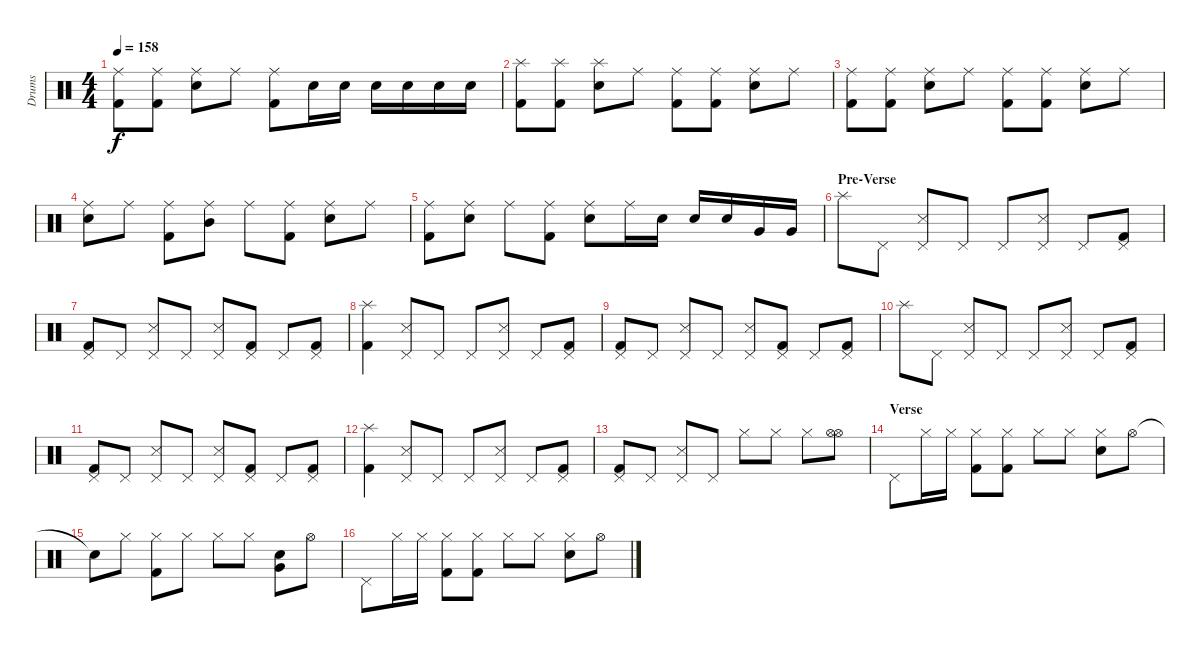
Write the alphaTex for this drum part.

\track ("Drums" "Drums") {instrument percussion}
\staff {score}
\articulation defaults
\ts (4 4)
\tempo 158
\clef neutral
\ks c
("Ride (middle)" "Kick (hit) 2").8{dy f} ("Ride (middle)" "Kick (hit) 2").8 ("Ride (middle)" "Electric Snare (hit)").8 "Ride (middle)".8 ("Ride (middle)" "Kick (hit) 2").8 "Electric Snare (hit)".16 "Electric Snare (hit)".16 "Electric Snare (hit)".16 "Electric Snare (hit)".16 "Electric Snare (hit)".16 "Electric Snare (hit)".16 |
("Splash (hit)" "Kick (hit) 2").8 ("Splash (hit)" "Kick (hit) 2").8 ("Splash (hit)" "Electric Snare (hit)").8 "Ride (middle)".8 ("Ride (middle)" "Kick (hit) 2").8 ("Ride (middle)" "Kick (hit) 2").8 ("Ride (middle)" "Electric Snare (hit)").8 "Ride (middle)".8 |
("Ride (middle)" "Kick (hit) 2").8 ("Ride (middle)" "Kick (hit) 2").8 ("Ride (middle)" "Electric Snare (hit)").8 "Ride (middle)".8 ("Ride (middle)" "Kick (hit) 2").8 ("Ride (middle)" "Kick (hit) 2").8 ("Ride (middle)" "Electric Snare (hit)").8 "Ride (middle)".8 |
("Ride (middle)" "Electric Snare (hit)").8 "Ride (middle)".8 ("Ride (middle)" "Kick (hit) 2").8 ("Ride (middle)" "Mid Tom (hit)").8 "Ride (middle)".8 ("Ride (middle)" "Kick (hit) 2").8 ("Ride (middle)" "Electric Snare (hit)").8 "Ride (middle)".8 |
("Ride (middle)" "Kick (hit) 2").8 ("Ride (middle)" "Electric Snare (hit)").8 "Ride (middle)".8 ("Ride (middle)" "Kick (hit) 2").8 ("Ride (middle)" "Electric Snare (hit)").8 "Ride (middle)".16 "Electric Snare (hit)".16 "Electric Snare (hit)".16 "Electric Snare (hit)".16 "Very Low Tom (hit)".16 "Very Low Tom (hit)".16 |
\section ("" "Pre-Verse")
"Splash (hit)".8 "Pedal Hi-Hat (hit)".8 ("Pedal Hi-Hat (hit)" "Snare (side stick) 3").8 "Pedal Hi-Hat (hit)".8 "Pedal Hi-Hat (hit)".8 ("Pedal Hi-Hat (hit)" "Snare (side stick) 3").8 "Pedal Hi-Hat (hit)".8 ("Pedal Hi-Hat (hit)" "Kick (hit) 2").8 |
("Pedal Hi-Hat (hit)" "Kick (hit) 2").8 "Pedal Hi-Hat (hit)".8 ("Pedal Hi-Hat (hit)" "Snare (side stick) 3").8 "Pedal Hi-Hat (hit)".8 ("Pedal Hi-Hat (hit)" "Snare (side stick) 3").8 ("Pedal Hi-Hat (hit)" "Kick (hit) 2").8 "Pedal Hi-Hat (hit)".8 ("Pedal Hi-Hat (hit)" "Kick (hit) 2").8 |
("Splash (hit)" "Kick (hit) 2").4 ("Pedal Hi-Hat (hit)" "Snare (side stick) 3").8 "Pedal Hi-Hat (hit)".8 "Pedal Hi-Hat (hit)".8 ("Pedal Hi-Hat (hit)" "Snare (side stick) 3").8 "Pedal Hi-Hat (hit)".8 ("Pedal Hi-Hat (hit)" "Kick (hit) 2").8 |
("Pedal Hi-Hat (hit)" "Kick (hit) 2").8 "Pedal Hi-Hat (hit)".8 ("Pedal Hi-Hat (hit)" "Snare (side stick) 3").8 "Pedal Hi-Hat (hit)".8 ("Pedal Hi-Hat (hit)" "Snare (side stick) 3").8 ("Pedal Hi-Hat (hit)" "Kick (hit) 2").8 "Pedal Hi-Hat (hit)".8 ("Pedal Hi-Hat (hit)" "Kick (hit) 2").8 |
"Splash (hit)".8 "Pedal Hi-Hat (hit)".8 ("Pedal Hi-Hat (hit)" "Snare (side stick) 3").8 "Pedal Hi-Hat (hit)".8 "Pedal Hi-Hat (hit)".8 ("Pedal Hi-Hat (hit)" "Snare (side stick) 3").8 "Pedal Hi-Hat (hit)".8 ("Pedal Hi-Hat (hit)" "Kick (hit) 2").8 |
("Pedal Hi-Hat (hit)" "Kick (hit) 2").8 "Pedal Hi-Hat (hit)".8 ("Pedal Hi-Hat (hit)" "Snare (side stick) 3").8 "Pedal Hi-Hat (hit)".8 ("Pedal Hi-Hat (hit)" "Snare (side stick) 3").8 ("Pedal Hi-Hat (hit)" "Kick (hit) 2").8 "Pedal Hi-Hat (hit)".8 ("Pedal Hi-Hat (hit)" "Kick (hit) 2").8 |
("Splash (hit)" "Kick (hit) 2").4 ("Pedal Hi-Hat (hit)" "Snare (side stick) 3").8 "Pedal Hi-Hat (hit)".8 "Pedal Hi-Hat (hit)".8 ("Pedal Hi-Hat (hit)" "Snare (side stick) 3").8 "Pedal Hi-Hat (hit)".8 ("Pedal Hi-Hat (hit)" "Kick (hit) 2").8 |
("Pedal Hi-Hat (hit)" "Kick (hit) 2").8 "Pedal Hi-Hat (hit)".8 ("Pedal Hi-Hat (hit)" "Snare (side stick) 3").8 "Pedal Hi-Hat (hit)".8 "Hi-Hat (closed)".8 "Hi-Hat (closed)".8 "Hi-Hat (closed)".8 ("Hi-Hat (open)" "Hi-Hat (open)").8 |
\section ("" "Verse")
"Pedal Hi-Hat (hit)".8 "Hi-Hat (closed)".16 "Hi-Hat (closed)".16 ("Hi-Hat (closed)" "Kick (hit) 2").8 ("Hi-Hat (closed)" "Kick (hit) 2").8 "Hi-Hat (closed)".8 "Hi-Hat (closed)".8 ("Hi-Hat (closed)" "Electric Snare (hit)").8 "Hi-Hat (open)".8 |
"Snare (hit)"{t}.8 "Hi-Hat (closed)".8 ("Hi-Hat (closed)" "Kick (hit) 2").8 "Hi-Hat (closed)".8 "Hi-Hat (closed)".8 "Hi-Hat (closed)".8 ("Very Low Tom (hit)" "Electric Snare (hit)").8 "Hi-Hat (open)".8 |
"Pedal Hi-Hat (hit)".8 "Hi-Hat (closed)".16 "Hi-Hat (closed)".16 ("Hi-Hat (closed)" "Kick (hit) 2").8 ("Hi-Hat (closed)" "Kick (hit) 2").8 "Hi-Hat (closed)".8 "Hi-Hat (closed)".8 ("Hi-Hat (closed)" "Electric Snare (hit)").8 "Hi-Hat (open)".8
